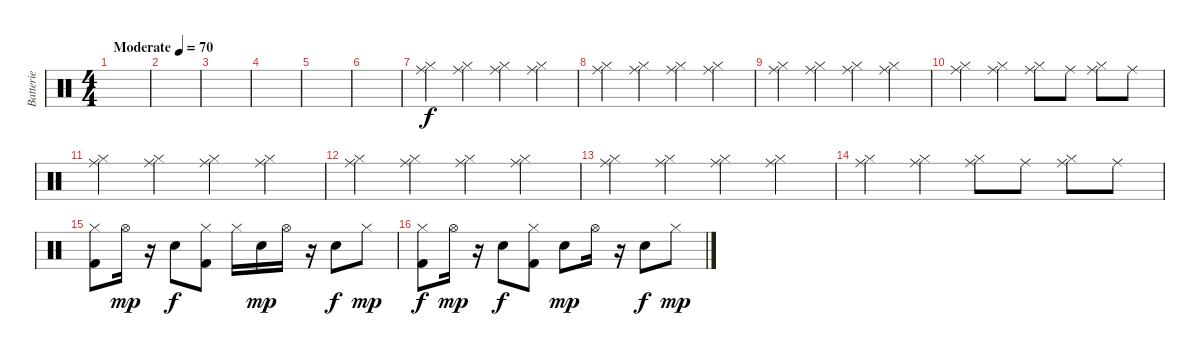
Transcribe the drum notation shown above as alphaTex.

\track ("Batterie" "Batterie") {instrument percussion}
\staff {score}
\articulation defaults
\ts (4 4)
\tempo (70 "Moderate")
\clef neutral
\ks c
|
|
|
|
|
|
("Ride (middle)" "Hi-Hat (closed)").4 ("Ride (middle)" "Hi-Hat (closed)").4 ("Ride (middle)" "Hi-Hat (closed)").4 ("Ride (middle)" "Hi-Hat (closed)").4 |
("Ride (middle)" "Hi-Hat (closed)").4 ("Ride (middle)" "Hi-Hat (closed)").4 ("Ride (middle)" "Hi-Hat (closed)").4 ("Ride (middle)" "Hi-Hat (closed)").4 |
("Ride (middle)" "Hi-Hat (closed)").4 ("Ride (middle)" "Hi-Hat (closed)").4 ("Ride (middle)" "Hi-Hat (closed)").4 ("Ride (middle)" "Hi-Hat (closed)").4 |
("Ride (middle)" "Hi-Hat (closed)").4 ("Ride (middle)" "Hi-Hat (closed)").4 ("Ride (middle)" "Hi-Hat (closed)").8 "Ride (middle)".8 ("Ride (middle)" "Hi-Hat (closed)").8 "Ride (middle)".8 |
("Ride (middle)" "Hi-Hat (closed)").4 ("Ride (middle)" "Hi-Hat (closed)").4 ("Ride (middle)" "Hi-Hat (closed)").4 ("Ride (middle)" "Hi-Hat (closed)").4 |
("Ride (middle)" "Hi-Hat (closed)").4 ("Ride (middle)" "Hi-Hat (closed)").4 ("Ride (middle)" "Hi-Hat (closed)").4 ("Ride (middle)" "Hi-Hat (closed)").4 |
("Ride (middle)" "Hi-Hat (closed)").4 ("Ride (middle)" "Hi-Hat (closed)").4 ("Ride (middle)" "Hi-Hat (closed)").4 ("Ride (middle)" "Hi-Hat (closed)").4 |
("Ride (middle)" "Hi-Hat (closed)").4 ("Ride (middle)" "Hi-Hat (closed)").4 ("Ride (middle)" "Hi-Hat (closed)").8 "Ride (middle)".8 ("Ride (middle)" "Hi-Hat (closed)").8 "Ride (middle)".8 |
("Kick (hit) 2" "Hi-Hat (closed)").8{dy f} "Hi-Hat (open)".16{dy mp} r.16 "Electric Snare (hit)".8{dy f} ("Kick (hit) 2" "Hi-Hat (closed)").8 "Hi-Hat (closed)".16 "Electric Snare (hit)".16{dy mp} "Hi-Hat (open)".16 r.16 "Electric Snare (hit)".8{dy f} "Hi-Hat (closed)".8{dy mp} |
("Kick (hit) 2" "Hi-Hat (closed)").8{dy f} "Hi-Hat (open)".16{dy mp} r.16 "Electric Snare (hit)".8{dy f} ("Kick (hit) 2" "Hi-Hat (closed)").8 "Electric Snare (hit)".8{dy mp} "Hi-Hat (open)".16 r.16 "Electric Snare (hit)".8{dy f} "Hi-Hat (closed)".8{dy mp}
